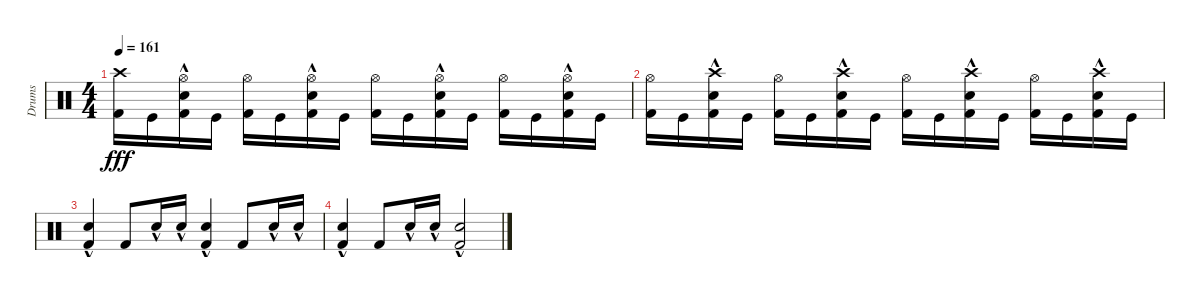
\track ("Drums" "Drums") {instrument percussion}
\staff {score}
\articulation defaults
\ts (4 4)
\tempo 161
\clef neutral
\ks c
("Crash high (hit)" "Kick (hit) 2").16{dy fff} "Kick (hit)".16 ("Hi-Hat (open)" "Snare (hit) 2"{hac} "Kick (hit) 2").16 "Kick (hit)".16 ("Hi-Hat (open)" "Kick (hit) 2").16 "Kick (hit)".16 ("Hi-Hat (open)" "Snare (hit) 2"{hac} "Kick (hit) 2").16 "Kick (hit)".16 ("Hi-Hat (open)" "Kick (hit) 2").16 "Kick (hit)".16 ("Hi-Hat (open)" "Snare (hit) 2"{hac} "Kick (hit) 2").16 "Kick (hit)".16 ("Hi-Hat (open)" "Kick (hit) 2").16 "Kick (hit)".16 ("Hi-Hat (open)" "Snare (hit) 2"{hac} "Kick (hit) 2").16 "Kick (hit)".16 |
("Hi-Hat (open)" "Kick (hit) 2").16 "Kick (hit)".16 ("Crash high (hit)" "Snare (hit) 2"{hac} "Kick (hit) 2").16 "Kick (hit)".16 ("Hi-Hat (open)" "Kick (hit) 2").16 "Kick (hit)".16 ("Crash high (hit)" "Snare (hit) 2"{hac} "Kick (hit) 2").16 "Kick (hit)".16 ("Hi-Hat (open)" "Kick (hit) 2").16 "Kick (hit)".16 ("Crash high (hit)" "Snare (hit) 2"{hac} "Kick (hit) 2").16 "Kick (hit)".16 ("Hi-Hat (open)" "Kick (hit) 2").16 "Kick (hit)".16 ("Crash high (hit)" "Snare (hit) 2"{hac} "Kick (hit) 2").16 "Kick (hit)".16 |
("Snare (hit) 2"{hac} "Kick (hit) 2").4 "Kick (hit) 2".8 "Snare (hit) 2"{hac}.16 "Snare (hit) 2"{hac}.16 ("Snare (hit) 2"{hac} "Kick (hit) 2").4 "Kick (hit) 2".8 "Snare (hit) 2"{hac}.16 "Snare (hit) 2"{hac}.16 |
("Snare (hit) 2"{hac} "Kick (hit) 2").4 "Kick (hit) 2".8 "Snare (hit) 2"{hac}.16 "Snare (hit) 2"{hac}.16 ("Snare (hit) 2"{hac} "Kick (hit) 2").2
